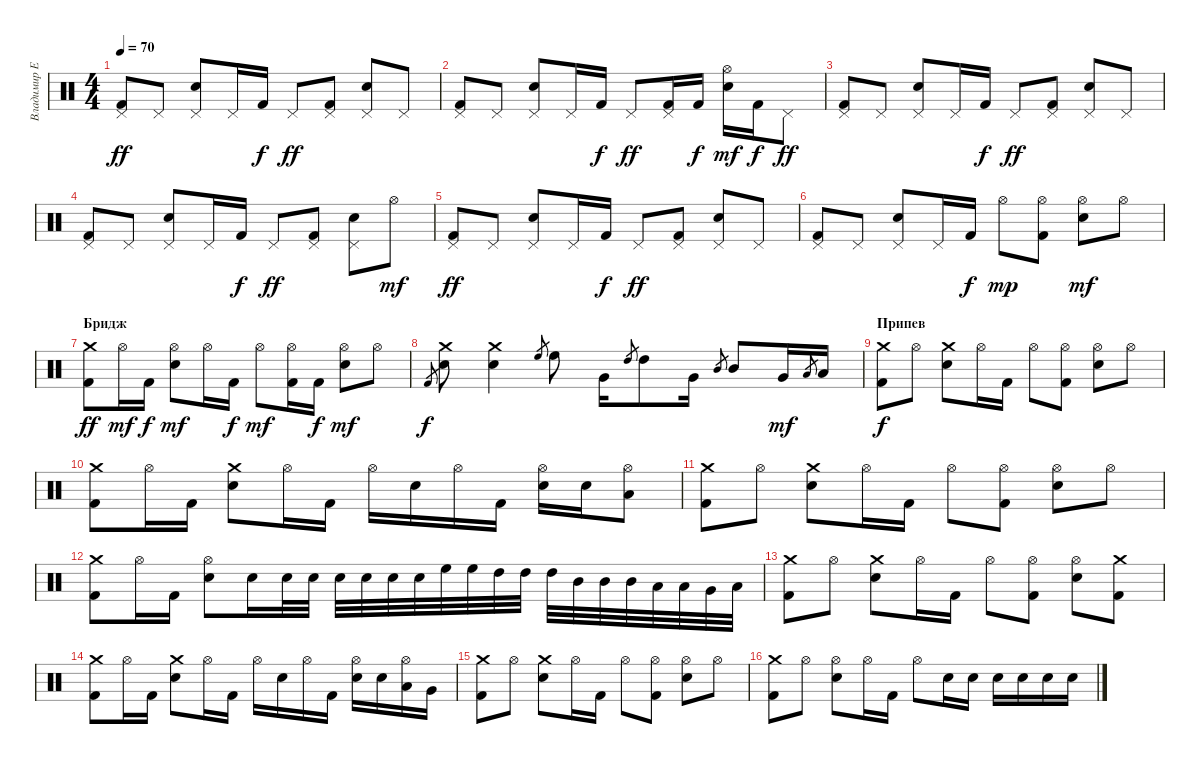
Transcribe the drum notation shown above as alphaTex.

\track ("Владимир Ермаков" "Владимир Е") {instrument percussion}
\staff {score}
\articulation defaults
\ts (4 4)
\tempo 70
\clef neutral
\ks c
("Pedal Hi-Hat (hit)" "Kick (hit) 2").8{dy ff} "Pedal Hi-Hat (hit)".8 ("Pedal Hi-Hat (hit)" "Electric Snare (hit)").8 "Pedal Hi-Hat (hit)".16 "Kick (hit) 2".16{dy f} "Pedal Hi-Hat (hit)".8{dy ff} ("Pedal Hi-Hat (hit)" "Kick (hit) 2").8 ("Pedal Hi-Hat (hit)" "Electric Snare (hit)").8 "Pedal Hi-Hat (hit)".8 |
("Pedal Hi-Hat (hit)" "Kick (hit) 2").8 "Pedal Hi-Hat (hit)".8 ("Pedal Hi-Hat (hit)" "Electric Snare (hit)").8 "Pedal Hi-Hat (hit)".16 "Kick (hit) 2".16{dy f} "Pedal Hi-Hat (hit)".8{dy ff} ("Pedal Hi-Hat (hit)" "Kick (hit) 2").16 "Kick (hit) 2".16{dy f} ("Hi-Hat (open)" "Electric Snare (hit)").16{dy mf} "Kick (hit) 2".16{dy f} "Pedal Hi-Hat (hit)".8{dy ff} |
("Pedal Hi-Hat (hit)" "Kick (hit) 2").8 "Pedal Hi-Hat (hit)".8 ("Pedal Hi-Hat (hit)" "Electric Snare (hit)").8 "Pedal Hi-Hat (hit)".16 "Kick (hit) 2".16{dy f} "Pedal Hi-Hat (hit)".8{dy ff} ("Pedal Hi-Hat (hit)" "Kick (hit) 2").8 ("Pedal Hi-Hat (hit)" "Electric Snare (hit)").8 "Pedal Hi-Hat (hit)".8 |
("Pedal Hi-Hat (hit)" "Kick (hit) 2").8 "Pedal Hi-Hat (hit)".8 ("Pedal Hi-Hat (hit)" "Electric Snare (hit)").8 "Pedal Hi-Hat (hit)".16 "Kick (hit) 2".16{dy f} "Pedal Hi-Hat (hit)".8{dy ff} ("Pedal Hi-Hat (hit)" "Kick (hit) 2").8 ("Pedal Hi-Hat (hit)" "Electric Snare (hit)").8 "Hi-Hat (open)".8{dy mf} |
("Pedal Hi-Hat (hit)" "Kick (hit) 2").8{dy ff} "Pedal Hi-Hat (hit)".8 ("Pedal Hi-Hat (hit)" "Electric Snare (hit)").8 "Pedal Hi-Hat (hit)".16 "Kick (hit) 2".16{dy f} "Pedal Hi-Hat (hit)".8{dy ff} ("Pedal Hi-Hat (hit)" "Kick (hit) 2").8 ("Pedal Hi-Hat (hit)" "Electric Snare (hit)").8 "Pedal Hi-Hat (hit)".8 |
("Pedal Hi-Hat (hit)" "Kick (hit) 2").8 "Pedal Hi-Hat (hit)".8 ("Pedal Hi-Hat (hit)" "Electric Snare (hit)").8 "Pedal Hi-Hat (hit)".16 "Kick (hit) 2".16{dy f} "Hi-Hat (open)".8{dy mp} ("Hi-Hat (open)" "Kick (hit) 2").8 ("Hi-Hat (open)" "Electric Snare (hit)").8{dy mf} "Hi-Hat (open)".8 |
\section ("" "Бридж")
("Crash medium (hit)" "Kick (hit) 2").8{dy ff} "Hi-Hat (open)".16{dy mf} "Kick (hit) 2".16{dy f} ("Hi-Hat (open)" "Electric Snare (hit)").8{dy mf} "Hi-Hat (open)".16 "Kick (hit) 2".16{dy f} "Hi-Hat (open)".8{dy mf} ("Hi-Hat (open)" "Kick (hit) 2").16 "Kick (hit) 2".16{dy f} ("Hi-Hat (open)" "Electric Snare (hit)").8{dy mf} "Hi-Hat (open)".8 |
"Kick (hit) 2".8{gr dy f} ("Electric Snare (hit)" "Crash medium (hit)").8 ("Electric Snare (hit)" "Crash medium (hit)").4 "High Floor Tom (hit)".8{gr} "High Floor Tom (hit)".8 "Very Low Tom (hit)".16 "High Tom (hit)".8{gr} "High Tom (hit)".8 "Very Low Tom (hit)".16 "Mid Tom (hit)".8{gr} "Mid Tom (hit)".8 "Very Low Tom (hit)".16{dy mf} "Low Tom (hit)".8{gr} "Low Tom (hit)".16 |
\section ("" "Припев")
("Crash medium (hit)" "Kick (hit) 2").8{dy f} "Hi-Hat (open)".8 ("Crash medium (hit)" "Electric Snare (hit)").8 "Hi-Hat (open)".16 "Kick (hit) 2".16 "Hi-Hat (open)".8 ("Hi-Hat (open)" "Kick (hit) 2").8 ("Hi-Hat (open)" "Electric Snare (hit)").8 "Hi-Hat (open)".8 |
("Crash medium (hit)" "Kick (hit) 2").8 "Hi-Hat (open)".16 "Kick (hit) 2".16 ("Crash medium (hit)" "Electric Snare (hit)").8 "Hi-Hat (open)".16 "Kick (hit) 2".16 "Hi-Hat (open)".16 "Electric Snare (hit)".16 "Hi-Hat (open)".16 "Kick (hit) 2".16 ("Hi-Hat (open)" "Electric Snare (hit)").16 "Electric Snare (hit)".16 ("Hi-Hat (open)" "Low Tom (hit)").8 |
("Crash medium (hit)" "Kick (hit) 2").8 "Hi-Hat (open)".8 ("Crash medium (hit)" "Electric Snare (hit)").8 "Hi-Hat (open)".16 "Kick (hit) 2".16 "Hi-Hat (open)".8 ("Hi-Hat (open)" "Kick (hit) 2").8 ("Hi-Hat (open)" "Electric Snare (hit)").8 "Hi-Hat (open)".8 |
("Crash medium (hit)" "Kick (hit) 2").8 "Hi-Hat (open)".16 "Kick (hit) 2".16 ("Hi-Hat (open)" "Electric Snare (hit)").8 "Electric Snare (hit)".16 "Electric Snare (hit)".32 "Electric Snare (hit)".32 "Electric Snare (hit)".32 "Electric Snare (hit)".32 "Electric Snare (hit)".32 "Electric Snare (hit)".32 "High Floor Tom (hit)".32 "High Floor Tom (hit)".32 "High Tom (hit)".32 "High Tom (hit)".32 "High Tom (hit)".32 "Mid Tom (hit)".32 "Mid Tom (hit)".32 "Mid Tom (hit)".32 "Low Tom (hit)".32 "Low Tom (hit)".32 "Very Low Tom (hit)".32 "Low Floor Tom (hit)".32 |
("Crash medium (hit)" "Kick (hit) 2").8 "Hi-Hat (open)".8 ("Crash medium (hit)" "Electric Snare (hit)").8 "Hi-Hat (open)".16 "Kick (hit) 2".16 "Hi-Hat (open)".8 ("Hi-Hat (open)" "Kick (hit) 2").8 ("Hi-Hat (open)" "Electric Snare (hit)").8 ("Crash medium (hit)" "Kick (hit) 2").8 |
("Crash medium (hit)" "Kick (hit) 2").8 "Hi-Hat (open)".16 "Kick (hit) 2".16 ("Crash medium (hit)" "Electric Snare (hit)").8 "Hi-Hat (open)".16 "Kick (hit) 2".16 "Hi-Hat (open)".16 "Electric Snare (hit)".16 "Hi-Hat (open)".16 "Kick (hit) 2".16 ("Hi-Hat (open)" "Electric Snare (hit)").16 "Electric Snare (hit)".16 ("Hi-Hat (open)" "Low Tom (hit)").16 "Very Low Tom (hit)".16 |
("Crash medium (hit)" "Kick (hit) 2").8 "Hi-Hat (open)".8 ("Crash medium (hit)" "Electric Snare (hit)").8 "Hi-Hat (open)".16 "Kick (hit) 2".16 "Hi-Hat (open)".8 ("Hi-Hat (open)" "Kick (hit) 2").8 ("Hi-Hat (open)" "Electric Snare (hit)").8 "Hi-Hat (open)".8 |
("Crash medium (hit)" "Kick (hit) 2").8 "Hi-Hat (open)".8 ("Hi-Hat (open)" "Electric Snare (hit)").8 "Hi-Hat (open)".16 "Kick (hit) 2".16 "Hi-Hat (open)".8 "Electric Snare (hit)".16 "Electric Snare (hit)".16 "Electric Snare (hit)".16 "Electric Snare (hit)".16 "Electric Snare (hit)".16 "Electric Snare (hit)".16
